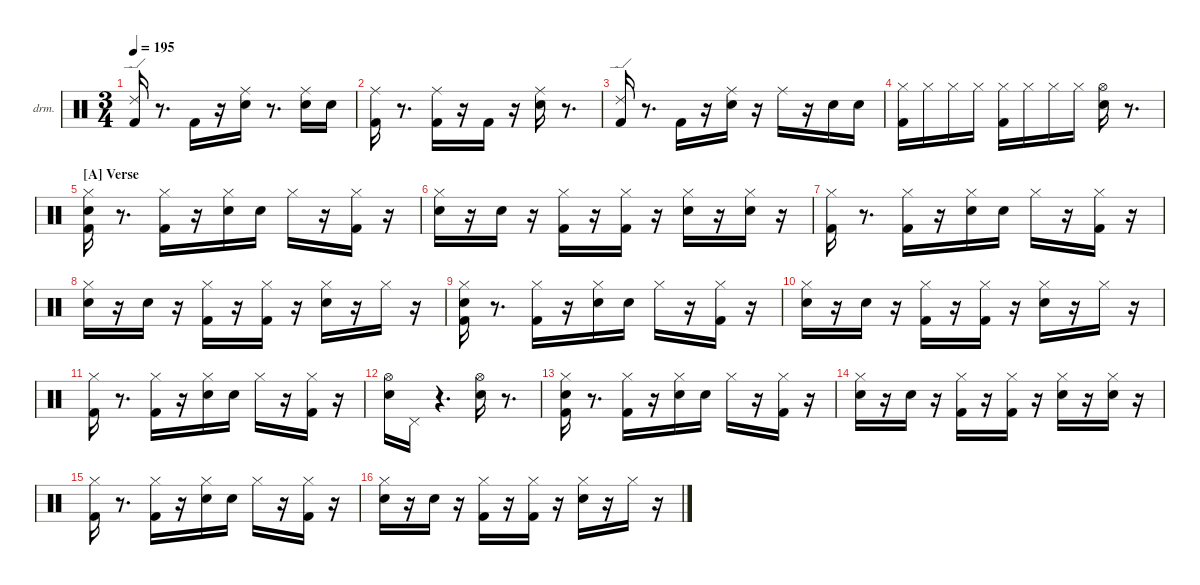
\hideDynamics
\bracketExtendMode nobrackets
\firstSystemTrackNameOrientation horizontal
\track ("Drums" "drm.") {instrument percussion}
\staff {score}
\articulation defaults
\ts (3 4)
\tempo 195
\clef neutral
\ks aminor
("Kick (hit) 2" "Ride (edge) 2").16{dy f} r.8{d} "Kick (hit) 2".16 r.16 ("Snare (hit) 2" "Ride (middle)"{acc #}).16 r.8{d} ("Snare (hit) 2" "Ride (middle)"{acc #}).16 "Snare (hit) 2".16{dy mp} |
("Kick (hit) 2" "Ride (middle)"{acc #}).16{dy fff} r.8{d} ("Kick (hit) 2" "Ride (middle)"{acc #}).16{dy mp} r.16 "Kick (hit) 2".16{dy f} r.16 ("Snare (hit) 2" "Ride (middle)"{acc #}).16{dy fff} r.8{d} |
("Kick (hit) 2" "Ride (edge) 2").16{dy ff} r.8{d} "Kick (hit) 2".16 r.16 ("Snare (hit) 2" "Ride (middle)"{acc #}).16{dy f} r.16 "Ride (middle)"{acc #}.16{dy fff} r.16 "Snare (hit) 2".16{dy f} "Snare (hit) 2".16{dy mp} |
("Kick (hit) 2" "Hi-Hat (closed)"{acc #}).16{dy ff} "Hi-Hat (closed)"{acc #}.16{dy pp} "Hi-Hat (closed)"{acc #}.16{dy mf} "Hi-Hat (closed)"{acc #}.16{dy mp} ("Kick (hit) 2" "Hi-Hat (closed)"{acc #}).16{dy f} "Hi-Hat (closed)"{acc #}.16{dy pp} "Hi-Hat (closed)"{acc #}.16{dy mf} "Hi-Hat (closed)"{acc #}.16{dy p} ("Snare (hit) 2" "Hi-Hat (open)"{acc #}).16{dy ff} r.8{d} |
\section ("A" "Verse")
("Kick (hit) 2" "Snare (hit) 2" "Hi-Hat (closed)"{acc #}).16{dy mp} r.8{d} ("Kick (hit) 2" "Hi-Hat (closed)"{acc #}).16{dy mf} r.16 ("Snare (hit) 2" "Hi-Hat (closed)"{acc #}).16{dy f} "Snare (hit) 2".16{dy pp} "Hi-Hat (closed)"{acc #}.16{dy ppp} r.16 ("Kick (hit) 2" "Hi-Hat (closed)"{acc #}).16{dy f} r.16 |
("Snare (hit) 2" "Hi-Hat (closed)"{acc #}).16{dy ff} r.16 "Snare (hit) 2".16{dy ppp} r.16 ("Kick (hit) 2" "Hi-Hat (closed)"{acc #}).16{dy p} r.16 ("Kick (hit) 2" "Hi-Hat (closed)"{acc #}).16{dy ff} r.16 ("Snare (hit) 2" "Hi-Hat (closed)"{acc #}).16{dy f} r.16 ("Snare (hit) 2" "Hi-Hat (closed)"{acc #}).16{dy pp} r.16 |
("Kick (hit) 2" "Hi-Hat (closed)"{acc #}).16{dy ff} r.8{d} ("Kick (hit) 2" "Hi-Hat (closed)"{acc #}).16{dy mf} r.16 ("Snare (hit) 2" "Hi-Hat (closed)"{acc #}).16{dy f} "Snare (hit) 2".16{dy pp} "Hi-Hat (closed)"{acc #}.16{dy ppp} r.16 ("Kick (hit) 2" "Hi-Hat (closed)"{acc #}).16{dy f} r.16 |
("Snare (hit) 2" "Hi-Hat (closed)"{acc #}).16{dy ff} r.16 "Snare (hit) 2".16{dy ppp} r.16 ("Kick (hit) 2" "Hi-Hat (closed)"{acc #}).16 r.16 ("Kick (hit) 2" "Hi-Hat (closed)"{acc #}).16 r.16 ("Snare (hit) 2" "Hi-Hat (closed)"{acc #}).16{dy ff} r.16 "Hi-Hat (closed)"{acc #}.16{dy ppp} r.16 |
("Kick (hit) 2" "Snare (hit) 2" "Hi-Hat (closed)"{acc #}).16{dy ff} r.8{d} ("Kick (hit) 2" "Hi-Hat (closed)"{acc #}).16{dy mf} r.16 ("Snare (hit) 2" "Hi-Hat (closed)"{acc #}).16{dy f} "Snare (hit) 2".16{dy pp} "Hi-Hat (closed)"{acc #}.16{dy ppp} r.16 ("Kick (hit) 2" "Hi-Hat (closed)"{acc #}).16 r.16 |
("Snare (hit) 2" "Hi-Hat (closed)"{acc #}).16{dy ff} r.16 "Snare (hit) 2".16{dy ppp} r.16 ("Kick (hit) 2" "Hi-Hat (closed)"{acc #}).16 r.16 ("Kick (hit) 2" "Hi-Hat (closed)"{acc #}).16{dy ff} r.16 ("Snare (hit) 2" "Hi-Hat (closed)"{acc #}).16{dy fff} r.16 "Hi-Hat (closed)"{acc #}.16{dy ppp} r.16 |
("Kick (hit) 2" "Hi-Hat (closed)"{acc #}).16{dy ff} r.8{d} ("Kick (hit) 2" "Hi-Hat (closed)"{acc #}).16{dy mf} r.16 ("Snare (hit) 2" "Hi-Hat (closed)"{acc #}).16{dy f} "Snare (hit) 2".16{dy pp} "Hi-Hat (closed)"{acc #}.16{dy ppp} r.16 ("Kick (hit) 2" "Hi-Hat (closed)"{acc #}).16{dy f} r.16 |
("Snare (hit) 2" "Hi-Hat (open)"{acc #}).16{dy fff} "Pedal Hi-Hat (hit)"{acc #}.16{dy ff} r.4{d} ("Snare (hit) 2" "Hi-Hat (open)"{acc #}).16 r.8{d} |
("Kick (hit) 2" "Snare (hit) 2" "Hi-Hat (closed)"{acc #}).16{dy fff} r.8{d} ("Kick (hit) 2" "Hi-Hat (closed)"{acc #}).16{dy mp} r.16 ("Snare (hit) 2" "Hi-Hat (closed)"{acc #}).16{dy f} "Snare (hit) 2".16{dy pp} "Hi-Hat (closed)"{acc #}.16{dy ppp} r.16 ("Kick (hit) 2" "Hi-Hat (closed)"{acc #}).16{dy f} r.16 |
("Snare (hit) 2" "Hi-Hat (closed)"{acc #}).16{dy ff} r.16 "Snare (hit) 2".16{dy ppp} r.16 ("Kick (hit) 2" "Hi-Hat (closed)"{acc #}).16 r.16 ("Kick (hit) 2" "Hi-Hat (closed)"{acc #}).16 r.16 ("Snare (hit) 2" "Hi-Hat (closed)"{acc #}).16{dy fff} r.16 ("Snare (hit) 2" "Hi-Hat (closed)"{acc #}).16{dy pp} r.16 |
("Kick (hit) 2" "Hi-Hat (closed)"{acc #}).16{dy ff} r.8{d} ("Kick (hit) 2" "Hi-Hat (closed)"{acc #}).16{dy mf} r.16 ("Snare (hit) 2" "Hi-Hat (closed)"{acc #}).16{dy f} "Snare (hit) 2".16{dy pp} "Hi-Hat (closed)"{acc #}.16{dy ppp} r.16 ("Kick (hit) 2" "Hi-Hat (closed)"{acc #}).16{dy f} r.16 |
("Snare (hit) 2" "Hi-Hat (closed)"{acc #}).16{dy ff} r.16 "Snare (hit) 2".16{dy ppp} r.16 ("Kick (hit) 2" "Hi-Hat (closed)"{acc #}).16 r.16 ("Kick (hit) 2" "Hi-Hat (closed)"{acc #}).16{dy ff} r.16 ("Snare (hit) 2" "Hi-Hat (closed)"{acc #}).16{dy f} r.16 "Hi-Hat (closed)"{acc #}.16{dy ppp} r.16
